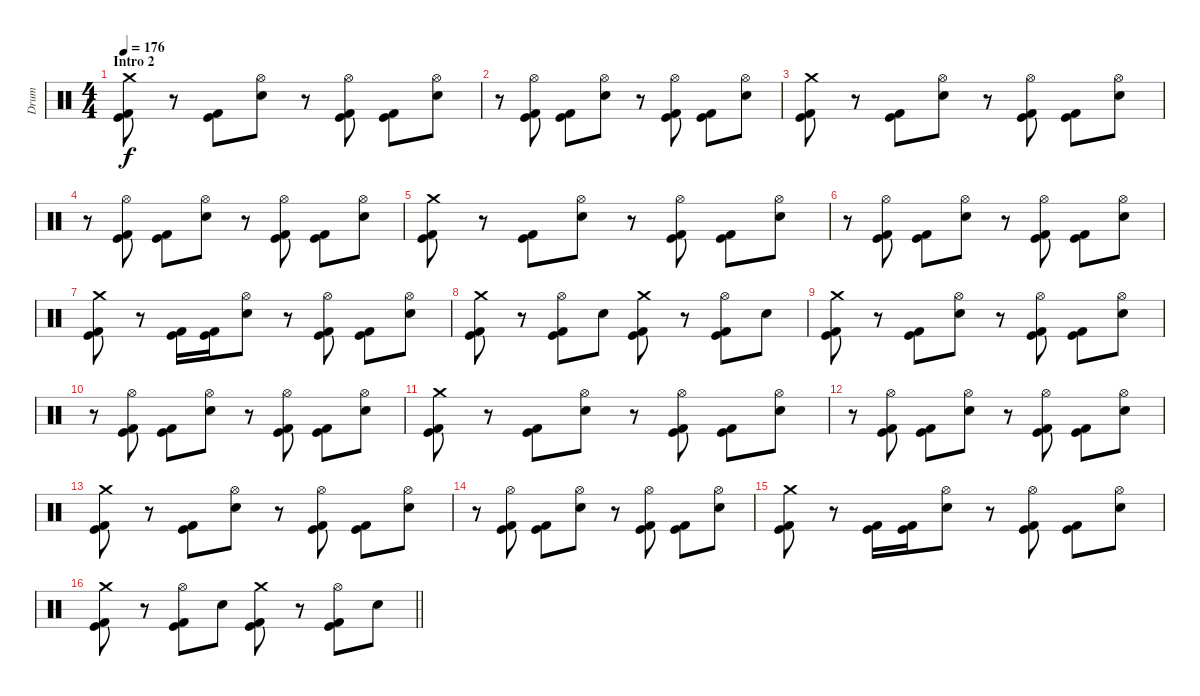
\track ("Drum" "Drum") {instrument percussion}
\staff {score}
\articulation defaults
\ts (4 4)
\section ("" "Intro 2")
\tempo 176
\clef neutral
\ks c
("Crash medium (hit)" "Kick (hit)" "Kick (hit) 2").8{dy f} r.8 ("Kick (hit)" "Kick (hit) 2").8 ("Hi-Hat (open)" "Electric Snare (hit)").8 r.8 ("Hi-Hat (open)" "Kick (hit)" "Kick (hit) 2").8 ("Kick (hit)" "Kick (hit) 2").8 ("Hi-Hat (open)" "Electric Snare (hit)").8 |
r.8 ("Hi-Hat (open)" "Kick (hit)" "Kick (hit) 2").8 ("Kick (hit)" "Kick (hit) 2").8 ("Hi-Hat (open)" "Electric Snare (hit)").8 r.8 ("Hi-Hat (open)" "Kick (hit)" "Kick (hit) 2").8 ("Kick (hit)" "Kick (hit) 2").8 ("Hi-Hat (open)" "Electric Snare (hit)").8 |
("Crash medium (hit)" "Kick (hit)" "Kick (hit) 2").8 r.8 ("Kick (hit)" "Kick (hit) 2").8 ("Hi-Hat (open)" "Electric Snare (hit)").8 r.8 ("Hi-Hat (open)" "Kick (hit)" "Kick (hit) 2").8 ("Kick (hit)" "Kick (hit) 2").8 ("Hi-Hat (open)" "Electric Snare (hit)").8 |
r.8 ("Hi-Hat (open)" "Kick (hit)" "Kick (hit) 2").8 ("Kick (hit)" "Kick (hit) 2").8 ("Hi-Hat (open)" "Electric Snare (hit)").8 r.8 ("Hi-Hat (open)" "Kick (hit)" "Kick (hit) 2").8 ("Kick (hit)" "Kick (hit) 2").8 ("Hi-Hat (open)" "Electric Snare (hit)").8 |
("Crash medium (hit)" "Kick (hit)" "Kick (hit) 2").8 r.8 ("Kick (hit)" "Kick (hit) 2").8 ("Hi-Hat (open)" "Electric Snare (hit)").8 r.8 ("Hi-Hat (open)" "Kick (hit)" "Kick (hit) 2").8 ("Kick (hit)" "Kick (hit) 2").8 ("Hi-Hat (open)" "Electric Snare (hit)").8 |
r.8 ("Hi-Hat (open)" "Kick (hit)" "Kick (hit) 2").8 ("Kick (hit)" "Kick (hit) 2").8 ("Hi-Hat (open)" "Electric Snare (hit)").8 r.8 ("Hi-Hat (open)" "Kick (hit)" "Kick (hit) 2").8 ("Kick (hit)" "Kick (hit) 2").8 ("Hi-Hat (open)" "Electric Snare (hit)").8 |
("Crash medium (hit)" "Kick (hit)" "Kick (hit) 2").8 r.8 ("Kick (hit)" "Kick (hit) 2").16 ("Kick (hit)" "Kick (hit) 2").16 ("Hi-Hat (open)" "Electric Snare (hit)").8 r.8 ("Hi-Hat (open)" "Kick (hit)" "Kick (hit) 2").8 ("Kick (hit)" "Kick (hit) 2").8 ("Hi-Hat (open)" "Electric Snare (hit)").8 |
("Crash medium (hit)" "Kick (hit)" "Kick (hit) 2").8 r.8 ("Hi-Hat (open)" "Kick (hit)" "Kick (hit) 2").8 "Electric Snare (hit)".8 ("Crash medium (hit)" "Kick (hit)" "Kick (hit) 2").8 r.8 ("Hi-Hat (open)" "Kick (hit)" "Kick (hit) 2").8 "Electric Snare (hit)".8 |
("Crash medium (hit)" "Kick (hit)" "Kick (hit) 2").8 r.8 ("Kick (hit)" "Kick (hit) 2").8 ("Hi-Hat (open)" "Electric Snare (hit)").8 r.8 ("Hi-Hat (open)" "Kick (hit)" "Kick (hit) 2").8 ("Kick (hit)" "Kick (hit) 2").8 ("Hi-Hat (open)" "Electric Snare (hit)").8 |
r.8 ("Hi-Hat (open)" "Kick (hit)" "Kick (hit) 2").8 ("Kick (hit)" "Kick (hit) 2").8 ("Hi-Hat (open)" "Electric Snare (hit)").8 r.8 ("Hi-Hat (open)" "Kick (hit)" "Kick (hit) 2").8 ("Kick (hit)" "Kick (hit) 2").8 ("Hi-Hat (open)" "Electric Snare (hit)").8 |
("Crash medium (hit)" "Kick (hit)" "Kick (hit) 2").8 r.8 ("Kick (hit)" "Kick (hit) 2").8 ("Hi-Hat (open)" "Electric Snare (hit)").8 r.8 ("Hi-Hat (open)" "Kick (hit)" "Kick (hit) 2").8 ("Kick (hit)" "Kick (hit) 2").8 ("Hi-Hat (open)" "Electric Snare (hit)").8 |
r.8 ("Hi-Hat (open)" "Kick (hit)" "Kick (hit) 2").8 ("Kick (hit)" "Kick (hit) 2").8 ("Hi-Hat (open)" "Electric Snare (hit)").8 r.8 ("Hi-Hat (open)" "Kick (hit)" "Kick (hit) 2").8 ("Kick (hit)" "Kick (hit) 2").8 ("Hi-Hat (open)" "Electric Snare (hit)").8 |
("Crash medium (hit)" "Kick (hit)" "Kick (hit) 2").8 r.8 ("Kick (hit)" "Kick (hit) 2").8 ("Hi-Hat (open)" "Electric Snare (hit)").8 r.8 ("Hi-Hat (open)" "Kick (hit)" "Kick (hit) 2").8 ("Kick (hit)" "Kick (hit) 2").8 ("Hi-Hat (open)" "Electric Snare (hit)").8 |
r.8 ("Hi-Hat (open)" "Kick (hit)" "Kick (hit) 2").8 ("Kick (hit)" "Kick (hit) 2").8 ("Hi-Hat (open)" "Electric Snare (hit)").8 r.8 ("Hi-Hat (open)" "Kick (hit)" "Kick (hit) 2").8 ("Kick (hit)" "Kick (hit) 2").8 ("Hi-Hat (open)" "Electric Snare (hit)").8 |
("Crash medium (hit)" "Kick (hit)" "Kick (hit) 2").8 r.8 ("Kick (hit)" "Kick (hit) 2").16 ("Kick (hit)" "Kick (hit) 2").16 ("Hi-Hat (open)" "Electric Snare (hit)").8 r.8 ("Hi-Hat (open)" "Kick (hit)" "Kick (hit) 2").8 ("Kick (hit)" "Kick (hit) 2").8 ("Hi-Hat (open)" "Electric Snare (hit)").8 |
\barLineRight lightlight
("Crash medium (hit)" "Kick (hit)" "Kick (hit) 2").8 r.8 ("Hi-Hat (open)" "Kick (hit)" "Kick (hit) 2").8 "Electric Snare (hit)".8 ("Crash medium (hit)" "Kick (hit)" "Kick (hit) 2").8 r.8 ("Hi-Hat (open)" "Kick (hit)" "Kick (hit) 2").8 "Electric Snare (hit)".8
